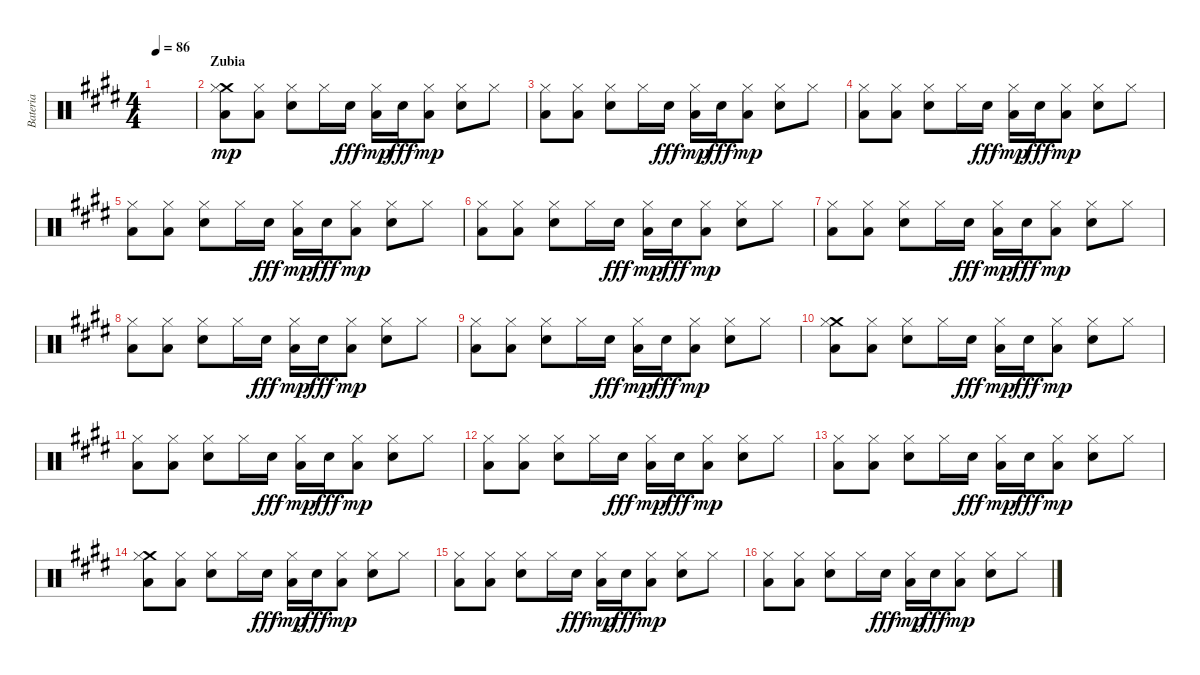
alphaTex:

\track ("Bateria" "Bateria") {instrument percussion}
\staff {score}
\articulation defaults
\ts (4 4)
\tempo 86
\clef neutral
\ks e
|
\section ("" "Zubia")
("Low Floor Tom (hit)" "Crash medium (hit)" "Hi-Hat (closed)").8{dy mp} ("Low Floor Tom (hit)" "Hi-Hat (closed)").8 ("Electric Snare (hit)" "Hi-Hat (closed)").8 "Hi-Hat (closed)".16 "Electric Snare (hit)".16{dy fff} ("Low Floor Tom (hit)" "Hi-Hat (closed)").16{dy mp} "Electric Snare (hit)".16{dy fff} ("Low Floor Tom (hit)" "Hi-Hat (closed)").8{dy mp} ("Electric Snare (hit)" "Hi-Hat (closed)").8 "Hi-Hat (closed)".8 |
("Low Floor Tom (hit)" "Hi-Hat (closed)").8 ("Low Floor Tom (hit)" "Hi-Hat (closed)").8 ("Electric Snare (hit)" "Hi-Hat (closed)").8 "Hi-Hat (closed)".16 "Electric Snare (hit)".16{dy fff} ("Low Floor Tom (hit)" "Hi-Hat (closed)").16{dy mp} "Electric Snare (hit)".16{dy fff} ("Low Floor Tom (hit)" "Hi-Hat (closed)").8{dy mp} ("Electric Snare (hit)" "Hi-Hat (closed)").8 "Hi-Hat (closed)".8 |
("Low Floor Tom (hit)" "Hi-Hat (closed)").8 ("Low Floor Tom (hit)" "Hi-Hat (closed)").8 ("Electric Snare (hit)" "Hi-Hat (closed)").8 "Hi-Hat (closed)".16 "Electric Snare (hit)".16{dy fff} ("Low Floor Tom (hit)" "Hi-Hat (closed)").16{dy mp} "Electric Snare (hit)".16{dy fff} ("Low Floor Tom (hit)" "Hi-Hat (closed)").8{dy mp} ("Electric Snare (hit)" "Hi-Hat (closed)").8 "Hi-Hat (closed)".8 |
("Low Floor Tom (hit)" "Hi-Hat (closed)").8 ("Low Floor Tom (hit)" "Hi-Hat (closed)").8 ("Electric Snare (hit)" "Hi-Hat (closed)").8 "Hi-Hat (closed)".16 "Electric Snare (hit)".16{dy fff} ("Low Floor Tom (hit)" "Hi-Hat (closed)").16{dy mp} "Electric Snare (hit)".16{dy fff} ("Low Floor Tom (hit)" "Hi-Hat (closed)").8{dy mp} ("Electric Snare (hit)" "Hi-Hat (closed)").8 "Hi-Hat (closed)".8 |
("Low Floor Tom (hit)" "Hi-Hat (closed)").8 ("Low Floor Tom (hit)" "Hi-Hat (closed)").8 ("Electric Snare (hit)" "Hi-Hat (closed)").8 "Hi-Hat (closed)".16 "Electric Snare (hit)".16{dy fff} ("Low Floor Tom (hit)" "Hi-Hat (closed)").16{dy mp} "Electric Snare (hit)".16{dy fff} ("Low Floor Tom (hit)" "Hi-Hat (closed)").8{dy mp} ("Electric Snare (hit)" "Hi-Hat (closed)").8 "Hi-Hat (closed)".8 |
("Low Floor Tom (hit)" "Hi-Hat (closed)").8 ("Low Floor Tom (hit)" "Hi-Hat (closed)").8 ("Electric Snare (hit)" "Hi-Hat (closed)").8 "Hi-Hat (closed)".16 "Electric Snare (hit)".16{dy fff} ("Low Floor Tom (hit)" "Hi-Hat (closed)").16{dy mp} "Electric Snare (hit)".16{dy fff} ("Low Floor Tom (hit)" "Hi-Hat (closed)").8{dy mp} ("Electric Snare (hit)" "Hi-Hat (closed)").8 "Hi-Hat (closed)".8 |
("Low Floor Tom (hit)" "Hi-Hat (closed)").8 ("Low Floor Tom (hit)" "Hi-Hat (closed)").8 ("Electric Snare (hit)" "Hi-Hat (closed)").8 "Hi-Hat (closed)".16 "Electric Snare (hit)".16{dy fff} ("Low Floor Tom (hit)" "Hi-Hat (closed)").16{dy mp} "Electric Snare (hit)".16{dy fff} ("Low Floor Tom (hit)" "Hi-Hat (closed)").8{dy mp} ("Electric Snare (hit)" "Hi-Hat (closed)").8 "Hi-Hat (closed)".8 |
("Low Floor Tom (hit)" "Hi-Hat (closed)").8 ("Low Floor Tom (hit)" "Hi-Hat (closed)").8 ("Electric Snare (hit)" "Hi-Hat (closed)").8 "Hi-Hat (closed)".16 "Electric Snare (hit)".16{dy fff} ("Low Floor Tom (hit)" "Hi-Hat (closed)").16{dy mp} "Electric Snare (hit)".16{dy fff} ("Low Floor Tom (hit)" "Hi-Hat (closed)").8{dy mp} ("Electric Snare (hit)" "Hi-Hat (closed)").8 "Hi-Hat (closed)".8 |
("Low Floor Tom (hit)" "Crash medium (hit)" "Hi-Hat (closed)").8 ("Low Floor Tom (hit)" "Hi-Hat (closed)").8 ("Electric Snare (hit)" "Hi-Hat (closed)").8 "Hi-Hat (closed)".16 "Electric Snare (hit)".16{dy fff} ("Low Floor Tom (hit)" "Hi-Hat (closed)").16{dy mp} "Electric Snare (hit)".16{dy fff} ("Low Floor Tom (hit)" "Hi-Hat (closed)").8{dy mp} ("Electric Snare (hit)" "Hi-Hat (closed)").8 "Hi-Hat (closed)".8 |
("Low Floor Tom (hit)" "Hi-Hat (closed)").8 ("Low Floor Tom (hit)" "Hi-Hat (closed)").8 ("Electric Snare (hit)" "Hi-Hat (closed)").8 "Hi-Hat (closed)".16 "Electric Snare (hit)".16{dy fff} ("Low Floor Tom (hit)" "Hi-Hat (closed)").16{dy mp} "Electric Snare (hit)".16{dy fff} ("Low Floor Tom (hit)" "Hi-Hat (closed)").8{dy mp} ("Electric Snare (hit)" "Hi-Hat (closed)").8 "Hi-Hat (closed)".8 |
("Low Floor Tom (hit)" "Hi-Hat (closed)").8 ("Low Floor Tom (hit)" "Hi-Hat (closed)").8 ("Electric Snare (hit)" "Hi-Hat (closed)").8 "Hi-Hat (closed)".16 "Electric Snare (hit)".16{dy fff} ("Low Floor Tom (hit)" "Hi-Hat (closed)").16{dy mp} "Electric Snare (hit)".16{dy fff} ("Low Floor Tom (hit)" "Hi-Hat (closed)").8{dy mp} ("Electric Snare (hit)" "Hi-Hat (closed)").8 "Hi-Hat (closed)".8 |
("Low Floor Tom (hit)" "Hi-Hat (closed)").8 ("Low Floor Tom (hit)" "Hi-Hat (closed)").8 ("Electric Snare (hit)" "Hi-Hat (closed)").8 "Hi-Hat (closed)".16 "Electric Snare (hit)".16{dy fff} ("Low Floor Tom (hit)" "Hi-Hat (closed)").16{dy mp} "Electric Snare (hit)".16{dy fff} ("Low Floor Tom (hit)" "Hi-Hat (closed)").8{dy mp} ("Electric Snare (hit)" "Hi-Hat (closed)").8 "Hi-Hat (closed)".8 |
("Low Floor Tom (hit)" "Crash medium (hit)" "Hi-Hat (closed)").8 ("Low Floor Tom (hit)" "Hi-Hat (closed)").8 ("Electric Snare (hit)" "Hi-Hat (closed)").8 "Hi-Hat (closed)".16 "Electric Snare (hit)".16{dy fff} ("Low Floor Tom (hit)" "Hi-Hat (closed)").16{dy mp} "Electric Snare (hit)".16{dy fff} ("Low Floor Tom (hit)" "Hi-Hat (closed)").8{dy mp} ("Electric Snare (hit)" "Hi-Hat (closed)").8 "Hi-Hat (closed)".8 |
("Low Floor Tom (hit)" "Hi-Hat (closed)").8 ("Low Floor Tom (hit)" "Hi-Hat (closed)").8 ("Electric Snare (hit)" "Hi-Hat (closed)").8 "Hi-Hat (closed)".16 "Electric Snare (hit)".16{dy fff} ("Low Floor Tom (hit)" "Hi-Hat (closed)").16{dy mp} "Electric Snare (hit)".16{dy fff} ("Low Floor Tom (hit)" "Hi-Hat (closed)").8{dy mp} ("Electric Snare (hit)" "Hi-Hat (closed)").8 "Hi-Hat (closed)".8 |
("Low Floor Tom (hit)" "Hi-Hat (closed)").8 ("Low Floor Tom (hit)" "Hi-Hat (closed)").8 ("Electric Snare (hit)" "Hi-Hat (closed)").8 "Hi-Hat (closed)".16 "Electric Snare (hit)".16{dy fff} ("Low Floor Tom (hit)" "Hi-Hat (closed)").16{dy mp} "Electric Snare (hit)".16{dy fff} ("Low Floor Tom (hit)" "Hi-Hat (closed)").8{dy mp} ("Electric Snare (hit)" "Hi-Hat (closed)").8 "Hi-Hat (closed)".8
